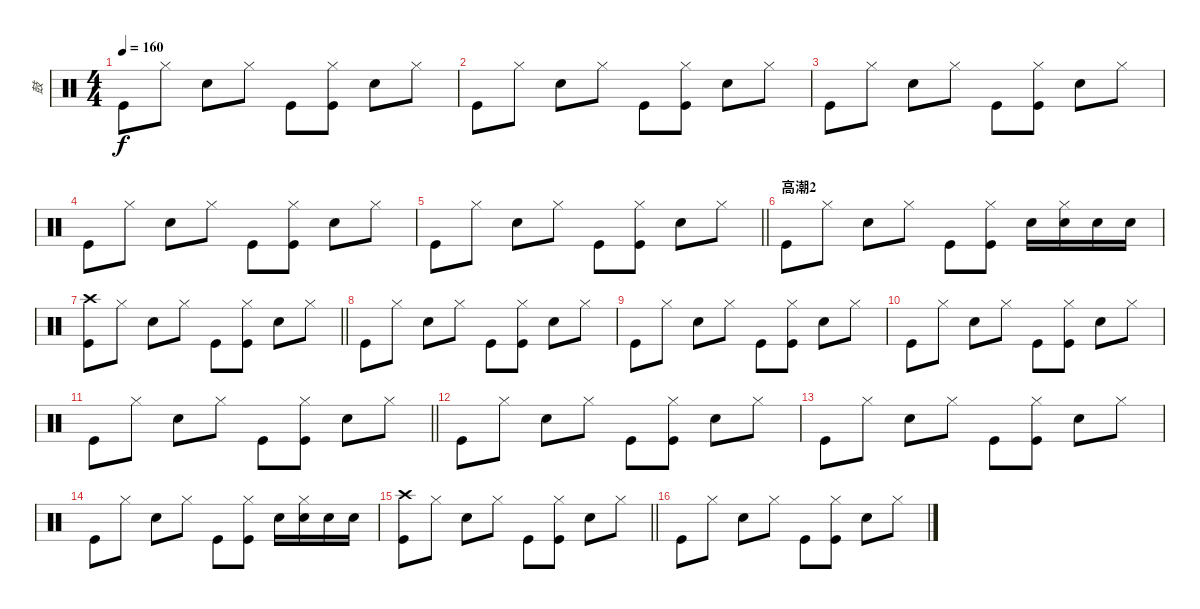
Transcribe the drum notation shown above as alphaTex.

\track ("鼓" "鼓") {instrument percussion}
\staff {score}
\articulation defaults
\ts (4 4)
\tempo 160
\clef neutral
\ks c "Kick (hit)".8{dy f} "Hi-Hat (closed)".8 "Electric Snare (hit)".8 "Hi-Hat (closed)".8 "Kick (hit)".8
("Hi-Hat (closed)" "Kick (hit)").8 "Electric Snare (hit)".8 "Hi-Hat (closed)".8 |
"Kick (hit)".8 "Hi-Hat (closed)".8 "Electric Snare (hit)".8 "Hi-Hat (closed)".8 "Kick (hit)".8 ("Hi-Hat (closed)" "Kick (hit)").8 "Electric Snare (hit)".8 "Hi-Hat (closed)".8 |
"Kick (hit)".8 "Hi-Hat (closed)".8 "Electric Snare (hit)".8 "Hi-Hat (closed)".8 "Kick (hit)".8 ("Hi-Hat (closed)" "Kick (hit)").8 "Electric Snare (hit)".8 "Hi-Hat (closed)".8 |
"Kick (hit)".8 "Hi-Hat (closed)".8 "Electric Snare (hit)".8 "Hi-Hat (closed)".8 "Kick (hit)".8 ("Hi-Hat (closed)" "Kick (hit)").8 "Electric Snare (hit)".8 "Hi-Hat (closed)".8 |
\barLineRight lightlight "Kick (hit)".8 "Hi-Hat (closed)".8 "Electric Snare (hit)".8 "Hi-Hat (closed)".8 "Kick (hit)".8
("Hi-Hat (closed)" "Kick (hit)").8 "Electric Snare (hit)".8 "Hi-Hat (closed)".8 |
\section ("" "高潮2")
"Kick (hit)".8 "Hi-Hat (closed)".8 "Electric Snare (hit)".8 "Hi-Hat (closed)".8 "Kick (hit)".8 ("Hi-Hat (closed)" "Kick (hit)").8 "Electric Snare (hit)".16 ("Hi-Hat (closed)" "Electric Snare (hit)").16 "Electric Snare (hit)".16 "Electric Snare (hit)".16 |
\barLineRight lightlight
("Crash high (hit)" "Kick (hit)").8 "Hi-Hat (closed)".8 "Electric Snare (hit)".8 "Hi-Hat (closed)".8 "Kick (hit)".8 ("Hi-Hat (closed)" "Kick (hit)").8 "Electric Snare (hit)".8 "Hi-Hat (closed)".8 |
"Kick (hit)".8 "Hi-Hat (closed)".8 "Electric Snare (hit)".8 "Hi-Hat (closed)".8 "Kick (hit)".8 ("Hi-Hat (closed)" "Kick (hit)").8 "Electric Snare (hit)".8 "Hi-Hat (closed)".8 |
"Kick (hit)".8 "Hi-Hat (closed)".8 "Electric Snare (hit)".8 "Hi-Hat (closed)".8 "Kick (hit)".8 ("Hi-Hat (closed)" "Kick (hit)").8 "Electric Snare (hit)".8 "Hi-Hat (closed)".8 |
"Kick (hit)".8 "Hi-Hat (closed)".8 "Electric Snare (hit)".8 "Hi-Hat (closed)".8 "Kick (hit)".8 ("Hi-Hat (closed)" "Kick (hit)").8 "Electric Snare (hit)".8 "Hi-Hat (closed)".8 |
\barLineRight lightlight "Kick (hit)".8 "Hi-Hat (closed)".8 "Electric Snare (hit)".8 "Hi-Hat (closed)".8 "Kick (hit)".8
("Hi-Hat (closed)" "Kick (hit)").8 "Electric Snare (hit)".8 "Hi-Hat (closed)".8 |
"Kick (hit)".8 "Hi-Hat (closed)".8 "Electric Snare (hit)".8 "Hi-Hat (closed)".8 "Kick (hit)".8 ("Hi-Hat (closed)" "Kick (hit)").8 "Electric Snare (hit)".8 "Hi-Hat (closed)".8 |
"Kick (hit)".8 "Hi-Hat (closed)".8 "Electric Snare (hit)".8 "Hi-Hat (closed)".8 "Kick (hit)".8 ("Hi-Hat (closed)" "Kick (hit)").8 "Electric Snare (hit)".8 "Hi-Hat (closed)".8 |
"Kick (hit)".8 "Hi-Hat (closed)".8 "Electric Snare (hit)".8 "Hi-Hat (closed)".8 "Kick (hit)".8 ("Hi-Hat (closed)" "Kick (hit)").8 "Electric Snare (hit)".16 ("Hi-Hat (closed)" "Electric Snare (hit)").16 "Electric Snare (hit)".16 "Electric Snare (hit)".16 |
\barLineRight lightlight
("Crash high (hit)" "Kick (hit)").8 "Hi-Hat (closed)".8 "Electric Snare (hit)".8 "Hi-Hat (closed)".8 "Kick (hit)".8 ("Hi-Hat (closed)" "Kick (hit)").8 "Electric Snare (hit)".8 "Hi-Hat (closed)".8 |
"Kick (hit)".8 "Hi-Hat (closed)".8 "Electric Snare (hit)".8 "Hi-Hat (closed)".8 "Kick (hit)".8 ("Hi-Hat (closed)" "Kick (hit)").8 "Electric Snare (hit)".8 "Hi-Hat (closed)".8
